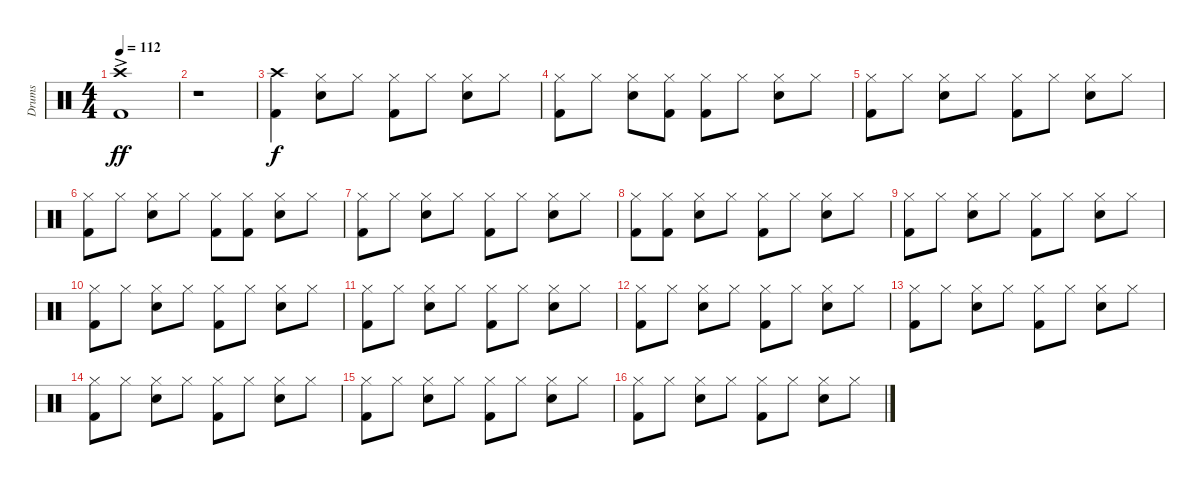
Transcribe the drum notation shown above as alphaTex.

\track ("Drums" "Drums") {instrument percussion}
\staff {score}
\articulation defaults
\ts (4 4)
\tempo 112
\clef neutral
\ks c
("Kick (hit) 2" "Crash high (hit)"{ac}).1{dy ff} |
r.1 |
("Kick (hit) 2" "Crash high (hit)").4{dy f} ("Snare (hit) 2" "Hi-Hat (closed)").8 "Hi-Hat (closed)".8 ("Kick (hit) 2" "Hi-Hat (closed)").8 "Hi-Hat (closed)".8 ("Snare (hit) 2" "Hi-Hat (closed)").8 "Hi-Hat (closed)".8 |
("Kick (hit) 2" "Hi-Hat (closed)").8 "Hi-Hat (closed)".8 ("Snare (hit) 2" "Hi-Hat (closed)").8 ("Kick (hit) 2" "Hi-Hat (closed)").8 ("Kick (hit) 2" "Hi-Hat (closed)").8 "Hi-Hat (closed)".8 ("Snare (hit) 2" "Hi-Hat (closed)").8 "Hi-Hat (closed)".8 |
("Kick (hit) 2" "Hi-Hat (closed)").8 "Hi-Hat (closed)".8 ("Snare (hit) 2" "Hi-Hat (closed)").8 "Hi-Hat (closed)".8 ("Kick (hit) 2" "Hi-Hat (closed)").8 "Hi-Hat (closed)".8 ("Snare (hit) 2" "Hi-Hat (closed)").8 "Hi-Hat (closed)".8 |
("Kick (hit) 2" "Hi-Hat (closed)").8 "Hi-Hat (closed)".8 ("Snare (hit) 2" "Hi-Hat (closed)").8 "Hi-Hat (closed)".8 ("Kick (hit) 2" "Hi-Hat (closed)").8 ("Kick (hit) 2" "Hi-Hat (closed)").8 ("Snare (hit) 2" "Hi-Hat (closed)").8 "Hi-Hat (closed)".8 |
("Kick (hit) 2" "Hi-Hat (closed)").8 "Hi-Hat (closed)".8 ("Snare (hit) 2" "Hi-Hat (closed)").8 "Hi-Hat (closed)".8 ("Kick (hit) 2" "Hi-Hat (closed)").8 "Hi-Hat (closed)".8 ("Snare (hit) 2" "Hi-Hat (closed)").8 "Hi-Hat (closed)".8 |
("Kick (hit) 2" "Hi-Hat (closed)").8 ("Kick (hit) 2" "Hi-Hat (closed)").8 ("Snare (hit) 2" "Hi-Hat (closed)").8 "Hi-Hat (closed)".8 ("Kick (hit) 2" "Hi-Hat (closed)").8 "Hi-Hat (closed)".8 ("Snare (hit) 2" "Hi-Hat (closed)").8 "Hi-Hat (closed)".8 |
("Kick (hit) 2" "Hi-Hat (closed)").8 "Hi-Hat (closed)".8 ("Snare (hit) 2" "Hi-Hat (closed)").8 "Hi-Hat (closed)".8 ("Kick (hit) 2" "Hi-Hat (closed)").8 "Hi-Hat (closed)".8 ("Snare (hit) 2" "Hi-Hat (closed)").8 "Hi-Hat (closed)".8 |
("Kick (hit) 2" "Hi-Hat (closed)").8 "Hi-Hat (closed)".8 ("Snare (hit) 2" "Hi-Hat (closed)").8 "Hi-Hat (closed)".8 ("Kick (hit) 2" "Hi-Hat (closed)").8 "Hi-Hat (closed)".8 ("Snare (hit) 2" "Hi-Hat (closed)").8 "Hi-Hat (closed)".8 |
("Kick (hit) 2" "Hi-Hat (closed)").8 "Hi-Hat (closed)".8 ("Snare (hit) 2" "Hi-Hat (closed)").8 "Hi-Hat (closed)".8 ("Kick (hit) 2" "Hi-Hat (closed)").8 "Hi-Hat (closed)".8 ("Snare (hit) 2" "Hi-Hat (closed)").8 "Hi-Hat (closed)".8 |
("Kick (hit) 2" "Hi-Hat (closed)").8 "Hi-Hat (closed)".8 ("Snare (hit) 2" "Hi-Hat (closed)").8 "Hi-Hat (closed)".8 ("Kick (hit) 2" "Hi-Hat (closed)").8 "Hi-Hat (closed)".8 ("Snare (hit) 2" "Hi-Hat (closed)").8 "Hi-Hat (closed)".8 |
("Kick (hit) 2" "Hi-Hat (closed)").8 "Hi-Hat (closed)".8 ("Snare (hit) 2" "Hi-Hat (closed)").8 "Hi-Hat (closed)".8 ("Kick (hit) 2" "Hi-Hat (closed)").8 "Hi-Hat (closed)".8 ("Snare (hit) 2" "Hi-Hat (closed)").8 "Hi-Hat (closed)".8 |
("Kick (hit) 2" "Hi-Hat (closed)").8 "Hi-Hat (closed)".8 ("Snare (hit) 2" "Hi-Hat (closed)").8 "Hi-Hat (closed)".8 ("Kick (hit) 2" "Hi-Hat (closed)").8 "Hi-Hat (closed)".8 ("Snare (hit) 2" "Hi-Hat (closed)").8 "Hi-Hat (closed)".8 |
("Kick (hit) 2" "Hi-Hat (closed)").8 "Hi-Hat (closed)".8 ("Snare (hit) 2" "Hi-Hat (closed)").8 "Hi-Hat (closed)".8 ("Kick (hit) 2" "Hi-Hat (closed)").8 "Hi-Hat (closed)".8 ("Snare (hit) 2" "Hi-Hat (closed)").8 "Hi-Hat (closed)".8 |
("Kick (hit) 2" "Hi-Hat (closed)").8 "Hi-Hat (closed)".8 ("Snare (hit) 2" "Hi-Hat (closed)").8 "Hi-Hat (closed)".8 ("Kick (hit) 2" "Hi-Hat (closed)").8 "Hi-Hat (closed)".8 ("Snare (hit) 2" "Hi-Hat (closed)").8 "Hi-Hat (closed)".8
